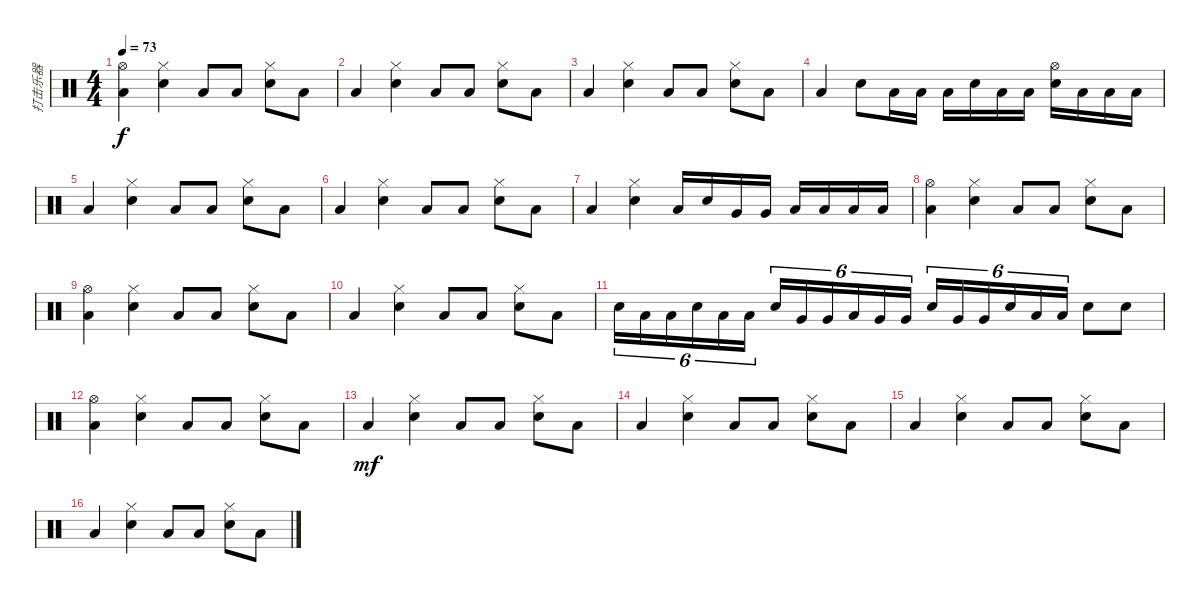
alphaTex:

\track ("打击乐器" "打击乐器") {instrument percussion}
\staff {score}
\articulation defaults
\ts (4 4)
\tempo 73
\clef neutral
\ks c
("Hi-Hat (open)" "Low Floor Tom (hit)").4{dy f} ("Hi-Hat (closed)" "Electric Snare (hit)").4 "Low Floor Tom (hit)".8 "Low Floor Tom (hit)".8 ("Hi-Hat (closed)" "Electric Snare (hit)").8 "Low Floor Tom (hit)".8 |
"Low Floor Tom (hit)".4 ("Hi-Hat (closed)" "Electric Snare (hit)").4 "Low Floor Tom (hit)".8 "Low Floor Tom (hit)".8 ("Hi-Hat (closed)" "Electric Snare (hit)").8 "Low Floor Tom (hit)".8 |
"Low Floor Tom (hit)".4 ("Hi-Hat (closed)" "Electric Snare (hit)").4 "Low Floor Tom (hit)".8 "Low Floor Tom (hit)".8 ("Hi-Hat (closed)" "Electric Snare (hit)").8 "Low Floor Tom (hit)".8 |
"Low Floor Tom (hit)".4 "Electric Snare (hit)".8 "Low Floor Tom (hit)".16 "Low Floor Tom (hit)".16 "Low Floor Tom (hit)".16 "Electric Snare (hit)".16 "Low Floor Tom (hit)".16 "Low Floor Tom (hit)".16 ("Hi-Hat (open)" "Electric Snare (hit)").16 "Low Floor Tom (hit)".16 "Low Floor Tom (hit)".16 "Low Floor Tom (hit)".16 |
"Low Floor Tom (hit)".4 ("Hi-Hat (closed)" "Electric Snare (hit)").4 "Low Floor Tom (hit)".8 "Low Floor Tom (hit)".8 ("Hi-Hat (closed)" "Electric Snare (hit)").8 "Low Floor Tom (hit)".8 |
"Low Floor Tom (hit)".4 ("Hi-Hat (closed)" "Electric Snare (hit)").4 "Low Floor Tom (hit)".8 "Low Floor Tom (hit)".8 ("Hi-Hat (closed)" "Electric Snare (hit)").8 "Low Floor Tom (hit)".8 |
"Low Floor Tom (hit)".4 ("Hi-Hat (closed)" "Electric Snare (hit)").4 "Low Floor Tom (hit)".16 "Electric Snare (hit)".16 "Very Low Tom (hit)".16 "Very Low Tom (hit)".16 "Low Floor Tom (hit)".16 "Low Tom (hit)".16 "Low Tom (hit)".16 "Low Tom (hit)".16 |
("Hi-Hat (open)" "Low Floor Tom (hit)").4 ("Hi-Hat (closed)" "Electric Snare (hit)").4 "Low Floor Tom (hit)".8 "Low Floor Tom (hit)".8 ("Hi-Hat (closed)" "Electric Snare (hit)").8 "Low Floor Tom (hit)".8 |
("Hi-Hat (open)" "Low Floor Tom (hit)").4 ("Hi-Hat (closed)" "Electric Snare (hit)").4 "Low Floor Tom (hit)".8 "Low Floor Tom (hit)".8 ("Hi-Hat (closed)" "Electric Snare (hit)").8 "Low Floor Tom (hit)".8 |
"Low Floor Tom (hit)".4 ("Hi-Hat (closed)" "Electric Snare (hit)").4 "Low Floor Tom (hit)".8 "Low Floor Tom (hit)".8 ("Hi-Hat (closed)" "Electric Snare (hit)").8 "Low Floor Tom (hit)".8 |
"Electric Snare (hit)".16{tu (6 4)} "Low Floor Tom (hit)".16{tu (6 4)} "Low Floor Tom (hit)".16{tu (6 4)} "Electric Snare (hit)".16{tu (6 4)} "Low Floor Tom (hit)".16{tu (6 4)} "Low Floor Tom (hit)".16{tu (6 4)} "Electric Snare (hit)".16{tu (6 4)} "Very Low Tom (hit)".16{tu (6 4)} "Very Low Tom (hit)".16{tu (6 4)} "Low Tom (hit)".16{tu (6 4)} "Very Low Tom (hit)".16{tu (6 4)} "Very Low Tom (hit)".16{tu (6 4)} "Electric Snare (hit)".16{tu (6 4)} "Very Low Tom (hit)".16{tu (6 4)} "Very Low Tom (hit)".16{tu (6 4)} "Electric Snare (hit)".16{tu (6 4)} "Low Tom (hit)".16{tu (6 4)} "Low Tom (hit)".16{tu (6 4)} "Electric Snare (hit)".8 "Electric Snare (hit)".8 |
("Hi-Hat (open)" "Low Floor Tom (hit)").4 ("Hi-Hat (closed)" "Electric Snare (hit)").4 "Low Floor Tom (hit)".8 "Low Floor Tom (hit)".8 ("Hi-Hat (closed)" "Electric Snare (hit)").8 "Low Floor Tom (hit)".8 |
"Low Floor Tom (hit)".4{dy mf} ("Hi-Hat (closed)" "Electric Snare (hit)").4 "Low Floor Tom (hit)".8 "Low Floor Tom (hit)".8 ("Hi-Hat (closed)" "Electric Snare (hit)").8 "Low Floor Tom (hit)".8 |
"Low Floor Tom (hit)".4 ("Hi-Hat (closed)" "Electric Snare (hit)").4 "Low Floor Tom (hit)".8 "Low Floor Tom (hit)".8 ("Hi-Hat (closed)" "Electric Snare (hit)").8 "Low Floor Tom (hit)".8 |
"Low Floor Tom (hit)".4 ("Hi-Hat (closed)" "Electric Snare (hit)").4 "Low Floor Tom (hit)".8 "Low Floor Tom (hit)".8 ("Hi-Hat (closed)" "Electric Snare (hit)").8 "Low Floor Tom (hit)".8 |
"Low Floor Tom (hit)".4 ("Hi-Hat (closed)" "Electric Snare (hit)").4 "Low Floor Tom (hit)".8 "Low Floor Tom (hit)".8 ("Hi-Hat (closed)" "Electric Snare (hit)").8 "Low Floor Tom (hit)".8
